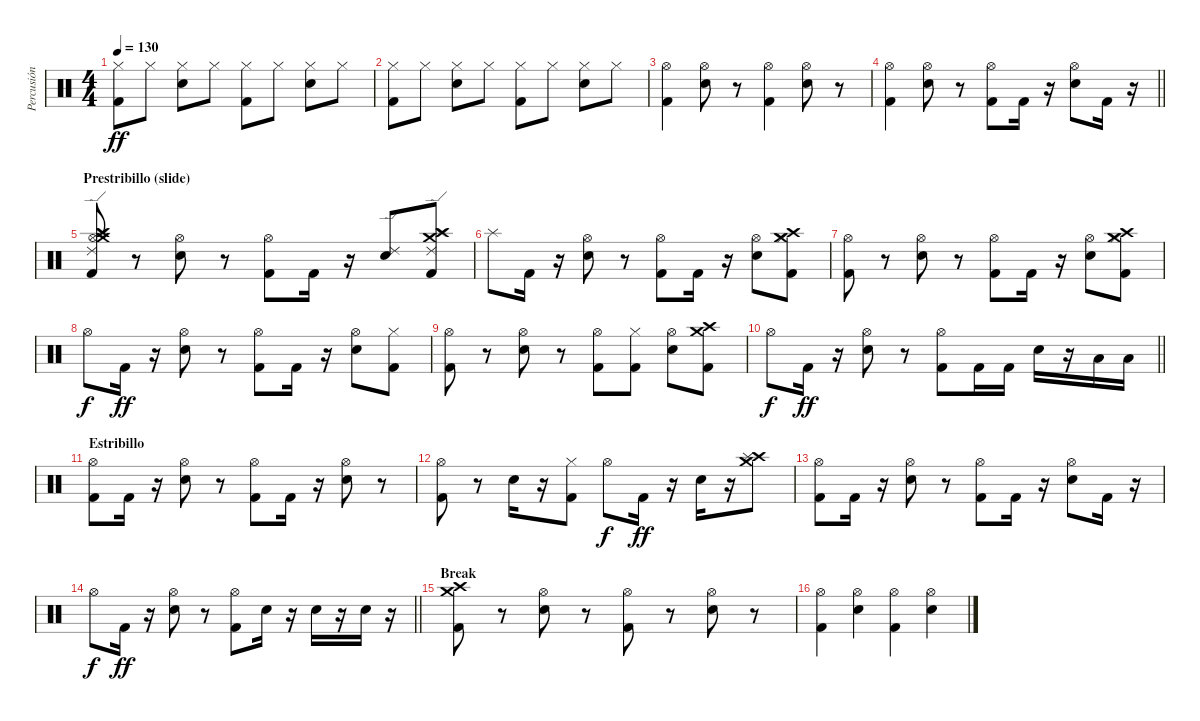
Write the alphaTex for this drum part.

\track ("Percusión" "Percusión") {instrument percussion}
\staff {score}
\articulation defaults
\ts (4 4)
\tempo 130
\clef neutral
\ks c
("Kick (hit) 2" "Hi-Hat (closed)").8{dy ff} "Hi-Hat (closed)".8 ("Snare (hit) 2" "Hi-Hat (closed)").8 "Hi-Hat (closed)".8 ("Kick (hit) 2" "Hi-Hat (closed)").8 "Hi-Hat (closed)".8 ("Snare (hit) 2" "Hi-Hat (closed)").8 "Hi-Hat (closed)".8 |
("Kick (hit) 2" "Hi-Hat (closed)").8 "Hi-Hat (closed)".8 ("Snare (hit) 2" "Hi-Hat (closed)").8 "Hi-Hat (closed)".8 ("Kick (hit) 2" "Hi-Hat (closed)").8 "Hi-Hat (closed)".8 ("Snare (hit) 2" "Hi-Hat (closed)").8 "Hi-Hat (closed)".8 |
("Kick (hit) 2" "Hi-Hat (open)").4 ("Snare (hit) 2" "Hi-Hat (open)").8 r.8 ("Kick (hit) 2" "Hi-Hat (open)").4 ("Snare (hit) 2" "Hi-Hat (open)").8 r.8 |
\barLineRight lightlight
("Kick (hit) 2" "Hi-Hat (open)").4 ("Snare (hit) 2" "Hi-Hat (open)").8 r.8 ("Kick (hit) 2" "Hi-Hat (open)").8 "Kick (hit) 2".16 r.16 ("Snare (hit) 2" "Hi-Hat (open)").8 "Kick (hit) 2".16 r.16 |
\section ("" "Prestribillo (slide)")
("Kick (hit) 2" "Hi-Hat (open)" "Crash high (hit)" "Splash (hit)" "Crash medium (hit)" "Ride (edge) 2").8 r.8 ("Snare (hit) 2" "Hi-Hat (open)").8 r.8 ("Kick (hit) 2" "Hi-Hat (open)").8 "Kick (hit) 2".16 r.16 ("Snare (hit) 2" "Ride (edge) 2").8 ("Kick (hit) 2" "Crash high (hit)" "Splash (hit)" "Crash medium (hit)" "Ride (edge) 2").8 |
"Splash (hit)".8 "Kick (hit) 2".16 r.16 ("Snare (hit) 2" "Hi-Hat (open)").8 r.8 ("Kick (hit) 2" "Hi-Hat (open)").8 "Kick (hit) 2".16 r.16 ("Snare (hit) 2" "Hi-Hat (open)").8 ("Kick (hit) 2" "Hi-Hat (closed)" "Crash high (hit)" "Crash medium (hit)").8 |
("Kick (hit) 2" "Hi-Hat (open)").8 r.8 ("Snare (hit) 2" "Hi-Hat (open)").8 r.8 ("Kick (hit) 2" "Hi-Hat (open)").8 "Kick (hit) 2".16 r.16 ("Snare (hit) 2" "Hi-Hat (open)").8 ("Kick (hit) 2" "Hi-Hat (closed)" "Crash high (hit)" "Crash medium (hit)").8 |
"Hi-Hat (open)".8{dy f} "Kick (hit) 2".16{dy ff} r.16 ("Snare (hit) 2" "Hi-Hat (open)").8 r.8 ("Kick (hit) 2" "Hi-Hat (open)").8 "Kick (hit) 2".16 r.16 ("Snare (hit) 2" "Hi-Hat (open)").8 ("Kick (hit) 2" "Hi-Hat (closed)").8 |
("Kick (hit) 2" "Hi-Hat (open)").8 r.8 ("Snare (hit) 2" "Hi-Hat (open)").8 r.8 ("Kick (hit) 2" "Hi-Hat (open)").8 ("Kick (hit) 2" "Hi-Hat (closed)").8 ("Snare (hit) 2" "Hi-Hat (open)").8 ("Kick (hit) 2" "Crash high (hit)" "Crash medium (hit)").8 |
\barLineRight lightlight "Hi-Hat (open)".8{dy f} "Kick (hit) 2".16{dy ff}
r.16 ("Snare (hit) 2" "Hi-Hat (open)").8 r.8 ("Kick (hit) 2" "Hi-Hat (open)").8 "Kick (hit) 2".16 "Kick (hit) 2".16 "Snare (hit) 2".16 r.16 "Low Floor Tom (hit)".16 "Low Floor Tom (hit)".16 |
\section ("" "Estribillo")
("Kick (hit) 2" "Hi-Hat (open)").8 "Kick (hit) 2".16 r.16 ("Snare (hit) 2" "Hi-Hat (open)").8 r.8 ("Kick (hit) 2" "Hi-Hat (open)").8 "Kick (hit) 2".16 r.16 ("Snare (hit) 2" "Hi-Hat (open)").8 r.8 |
("Kick (hit) 2" "Hi-Hat (open)").8 r.8 "Snare (hit) 2".16 r.16 ("Kick (hit) 2" "Hi-Hat (closed)").8 "Hi-Hat (open)".8{dy f} "Kick (hit) 2".16{dy ff} r.16 "Snare (hit) 2".16 r.16 ("Crash high (hit)" "Splash (hit)" "Crash medium (hit)").8 |
("Kick (hit) 2" "Hi-Hat (open)").8 "Kick (hit) 2".16 r.16 ("Snare (hit) 2" "Hi-Hat (open)").8 r.8 ("Kick (hit) 2" "Hi-Hat (open)").8 "Kick (hit) 2".16 r.16 ("Snare (hit) 2" "Hi-Hat (open)").8 "Kick (hit) 2".16 r.16 |
\barLineRight lightlight "Hi-Hat (open)".8{dy f} "Kick (hit) 2".16{dy ff}
r.16 ("Snare (hit) 2" "Hi-Hat (open)").8 r.8 ("Kick (hit) 2" "Hi-Hat (open)").8 "Snare (hit) 2".16 r.16 "Snare (hit) 2".16 r.16 "Snare (hit) 2".16 r.16 |
\section ("" "Break")
("Kick (hit) 2" "Crash high (hit)" "Crash medium (hit)").8 r.8 ("Snare (hit) 2" "Hi-Hat (open)").8 r.8 ("Kick (hit) 2" "Hi-Hat (open)").8 r.8 ("Snare (hit) 2" "Hi-Hat (open)").8 r.8 |
("Kick (hit) 2" "Hi-Hat (open)").4 ("Snare (hit) 2" "Hi-Hat (open)").4 ("Kick (hit) 2" "Hi-Hat (open)").4 ("Snare (hit) 2" "Hi-Hat (open)").4
